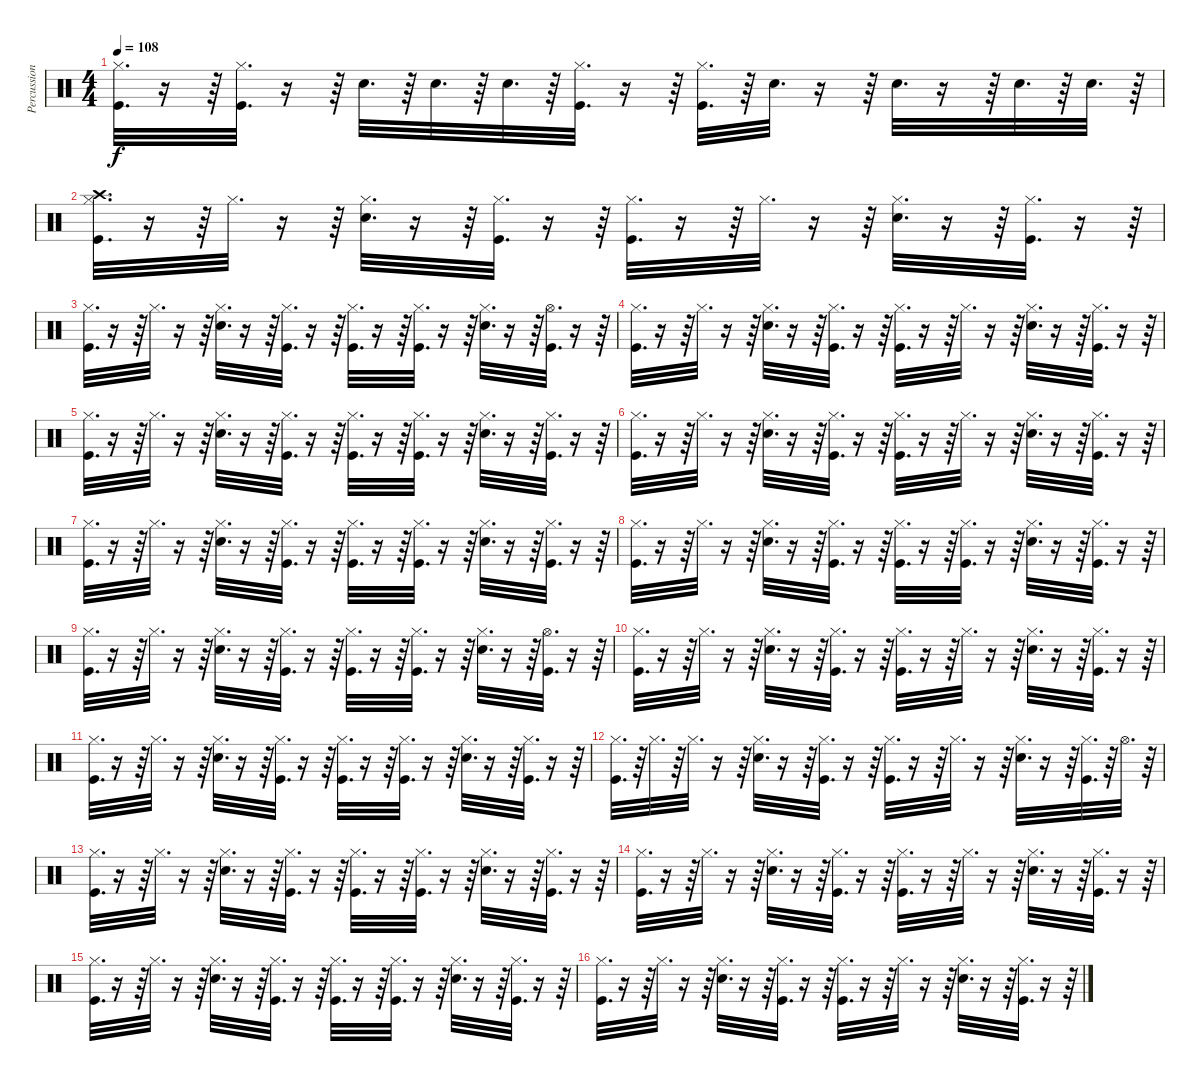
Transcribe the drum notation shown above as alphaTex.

\track ("Percussions" "Percussion") {instrument percussion}
\staff {score}
\articulation defaults
\ts (4 4)
\tempo 108
\clef neutral
\ks c
("Hi-Hat (closed)" "Kick (hit)").32{d dy f} r.16 r.64 ("Hi-Hat (closed)" "Kick (hit)").32{d} r.16 r.64 "Snare (hit) 2".32{d} r.64 "Snare (hit) 2".32{d} r.64 "Snare (hit) 2".32{d} r.64 ("Kick (hit)" "Hi-Hat (closed)").32{d} r.16 r.64 ("Kick (hit)" "Hi-Hat (closed)").32{d} r.64 "Snare (hit) 2".32{d} r.16 r.64 "Snare (hit) 2".32{d} r.16 r.64 "Snare (hit) 2".32{d} r.64 "Snare (hit) 2".32{d} r.64 |
("Crash high (hit)" "Hi-Hat (closed)" "Kick (hit)").32{d} r.16 r.64 "Hi-Hat (closed)".32{d} r.16 r.64 ("Hi-Hat (closed)" "Snare (hit) 2").32{d} r.16 r.64 ("Hi-Hat (closed)" "Kick (hit)").32{d} r.16 r.64 ("Hi-Hat (closed)" "Kick (hit)").32{d} r.16 r.64 "Hi-Hat (closed)".32{d} r.16 r.64 ("Hi-Hat (closed)" "Snare (hit) 2").32{d} r.16 r.64 ("Hi-Hat (closed)" "Kick (hit)").32{d} r.16 r.64 |
("Hi-Hat (closed)" "Kick (hit)").32{d} r.16 r.64 "Hi-Hat (closed)".32{d} r.16 r.64 ("Hi-Hat (closed)" "Snare (hit) 2").32{d} r.16 r.64 ("Hi-Hat (closed)" "Kick (hit)").32{d} r.16 r.64 ("Hi-Hat (closed)" "Kick (hit)").32{d} r.16 r.64 ("Hi-Hat (closed)" "Kick (hit)").32{d} r.16 r.64 ("Hi-Hat (closed)" "Snare (hit) 2").32{d} r.16 r.64 ("Hi-Hat (open)" "Kick (hit)").32{d} r.16 r.64 |
("Hi-Hat (closed)" "Kick (hit)").32{d} r.16 r.64 "Hi-Hat (closed)".32{d} r.16 r.64 ("Hi-Hat (closed)" "Snare (hit) 2").32{d} r.16 r.64 ("Hi-Hat (closed)" "Kick (hit)").32{d} r.16 r.64 ("Hi-Hat (closed)" "Kick (hit)").32{d} r.16 r.64 "Hi-Hat (closed)".32{d} r.16 r.64 ("Hi-Hat (closed)" "Snare (hit) 2").32{d} r.16 r.64 ("Hi-Hat (closed)" "Kick (hit)").32{d} r.16 r.64 |
("Hi-Hat (closed)" "Kick (hit)").32{d} r.16 r.64 "Hi-Hat (closed)".32{d} r.16 r.64 ("Hi-Hat (closed)" "Snare (hit) 2").32{d} r.16 r.64 ("Hi-Hat (closed)" "Kick (hit)").32{d} r.16 r.64 ("Hi-Hat (closed)" "Kick (hit)").32{d} r.16 r.64 ("Hi-Hat (closed)" "Kick (hit)").32{d} r.16 r.64 ("Hi-Hat (closed)" "Snare (hit) 2").32{d} r.16 r.64 ("Hi-Hat (closed)" "Kick (hit)").32{d} r.16 r.64 |
("Hi-Hat (closed)" "Kick (hit)").32{d} r.16 r.64 "Hi-Hat (closed)".32{d} r.16 r.64 ("Hi-Hat (closed)" "Snare (hit) 2").32{d} r.16 r.64 ("Hi-Hat (closed)" "Kick (hit)").32{d} r.16 r.64 ("Hi-Hat (closed)" "Kick (hit)").32{d} r.16 r.64 "Hi-Hat (closed)".32{d} r.16 r.64 ("Hi-Hat (closed)" "Snare (hit) 2").32{d} r.16 r.64 ("Hi-Hat (closed)" "Kick (hit)").32{d} r.16 r.64 |
("Hi-Hat (closed)" "Kick (hit)").32{d} r.16 r.64 "Hi-Hat (closed)".32{d} r.16 r.64 ("Hi-Hat (closed)" "Snare (hit) 2").32{d} r.16 r.64 ("Hi-Hat (closed)" "Kick (hit)").32{d} r.16 r.64 ("Hi-Hat (closed)" "Kick (hit)").32{d} r.16 r.64 ("Hi-Hat (closed)" "Kick (hit)").32{d} r.16 r.64 ("Hi-Hat (closed)" "Snare (hit) 2").32{d} r.16 r.64 ("Hi-Hat (closed)" "Kick (hit)").32{d} r.16 r.64 |
("Hi-Hat (closed)" "Kick (hit)").32{d} r.16 r.64 "Hi-Hat (closed)".32{d} r.16 r.64 ("Hi-Hat (closed)" "Snare (hit) 2").32{d} r.16 r.64 ("Hi-Hat (closed)" "Kick (hit)").32{d} r.16 r.64 ("Hi-Hat (closed)" "Kick (hit)").32{d} r.16 r.64 ("Kick (hit)" "Hi-Hat (closed)").32{d} r.16 r.64 ("Hi-Hat (closed)" "Snare (hit) 2").32{d} r.16 r.64 ("Hi-Hat (closed)" "Kick (hit)").32{d} r.16 r.64 |
("Hi-Hat (closed)" "Kick (hit)").32{d} r.16 r.64 "Hi-Hat (closed)".32{d} r.16 r.64 ("Hi-Hat (closed)" "Snare (hit) 2").32{d} r.16 r.64 ("Hi-Hat (closed)" "Kick (hit)").32{d} r.16 r.64 ("Hi-Hat (closed)" "Kick (hit)").32{d} r.16 r.64 ("Hi-Hat (closed)" "Kick (hit)").32{d} r.16 r.64 ("Hi-Hat (closed)" "Snare (hit) 2").32{d} r.16 r.64 ("Hi-Hat (open)" "Kick (hit)").32{d} r.16 r.64 |
("Hi-Hat (closed)" "Kick (hit)").32{d} r.16 r.64 "Hi-Hat (closed)".32{d} r.16 r.64 ("Hi-Hat (closed)" "Snare (hit) 2").32{d} r.16 r.64 ("Hi-Hat (closed)" "Kick (hit)").32{d} r.16 r.64 ("Hi-Hat (closed)" "Kick (hit)").32{d} r.16 r.64 "Hi-Hat (closed)".32{d} r.16 r.64 ("Hi-Hat (closed)" "Snare (hit) 2").32{d} r.16 r.64 ("Hi-Hat (closed)" "Kick (hit)").32{d} r.16 r.64 |
("Hi-Hat (closed)" "Kick (hit)").32{d} r.16 r.64 "Hi-Hat (closed)".32{d} r.16 r.64 ("Hi-Hat (closed)" "Snare (hit) 2").32{d} r.16 r.64 ("Hi-Hat (closed)" "Kick (hit)").32{d} r.16 r.64 ("Hi-Hat (closed)" "Kick (hit)").32{d} r.16 r.64 ("Hi-Hat (closed)" "Kick (hit)").32{d} r.16 r.64 ("Hi-Hat (closed)" "Snare (hit) 2").32{d} r.16 r.64 ("Hi-Hat (closed)" "Kick (hit)").32{d} r.16 r.64 |
("Hi-Hat (closed)" "Kick (hit)").32{d} r.64 "Hi-Hat (closed)".32{d} r.64 "Hi-Hat (closed)".32{d} r.16 r.64 ("Hi-Hat (closed)" "Snare (hit) 2").32{d} r.16 r.64 ("Hi-Hat (closed)" "Kick (hit)").32{d} r.16 r.64 ("Hi-Hat (closed)" "Kick (hit)").32{d} r.16 r.64 "Hi-Hat (closed)".32{d} r.16 r.64 ("Hi-Hat (closed)" "Snare (hit) 2").32{d} r.16 r.64 ("Hi-Hat (closed)" "Kick (hit)").32{d} r.64 "Hi-Hat (open)".32{d} r.64 |
("Hi-Hat (closed)" "Kick (hit)").32{d} r.16 r.64 "Hi-Hat (closed)".32{d} r.16 r.64 ("Hi-Hat (closed)" "Snare (hit) 2").32{d} r.16 r.64 ("Hi-Hat (closed)" "Kick (hit)").32{d} r.16 r.64 ("Hi-Hat (closed)" "Kick (hit)").32{d} r.16 r.64 ("Hi-Hat (closed)" "Kick (hit)").32{d} r.16 r.64 ("Hi-Hat (closed)" "Snare (hit) 2").32{d} r.16 r.64 ("Hi-Hat (closed)" "Kick (hit)").32{d} r.16 r.64 |
("Hi-Hat (closed)" "Kick (hit)").32{d} r.16 r.64 "Hi-Hat (closed)".32{d} r.16 r.64 ("Hi-Hat (closed)" "Snare (hit) 2").32{d} r.16 r.64 ("Hi-Hat (closed)" "Kick (hit)").32{d} r.16 r.64 ("Hi-Hat (closed)" "Kick (hit)").32{d} r.16 r.64 "Hi-Hat (closed)".32{d} r.16 r.64 ("Hi-Hat (closed)" "Snare (hit) 2").32{d} r.16 r.64 ("Hi-Hat (closed)" "Kick (hit)").32{d} r.16 r.64 |
("Hi-Hat (closed)" "Kick (hit)").32{d} r.16 r.64 "Hi-Hat (closed)".32{d} r.16 r.64 ("Hi-Hat (closed)" "Snare (hit) 2").32{d} r.16 r.64 ("Hi-Hat (closed)" "Kick (hit)").32{d} r.16 r.64 ("Hi-Hat (closed)" "Kick (hit)").32{d} r.16 r.64 ("Hi-Hat (closed)" "Kick (hit)").32{d} r.16 r.64 ("Hi-Hat (closed)" "Snare (hit) 2").32{d} r.16 r.64 ("Hi-Hat (closed)" "Kick (hit)").32{d} r.16 r.64 |
("Hi-Hat (closed)" "Kick (hit)").32{d} r.16 r.64 "Hi-Hat (closed)".32{d} r.16 r.64 ("Hi-Hat (closed)" "Snare (hit) 2").32{d} r.16 r.64 ("Hi-Hat (closed)" "Kick (hit)").32{d} r.16 r.64 ("Hi-Hat (closed)" "Kick (hit)").32{d} r.16 r.64 "Hi-Hat (closed)".32{d} r.16 r.64 ("Hi-Hat (closed)" "Snare (hit) 2").32{d} r.16 r.64 ("Hi-Hat (closed)" "Kick (hit)").32{d} r.16 r.64
